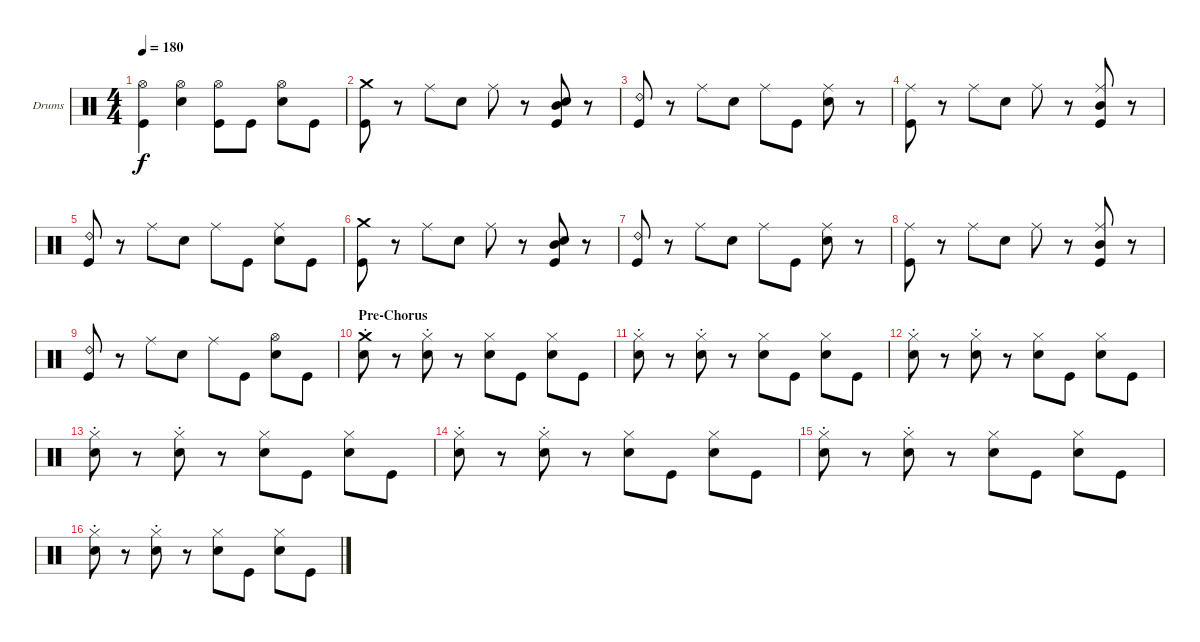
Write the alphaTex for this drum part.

\defaultSystemsLayout 4
\bracketExtendMode groupsimilarinstruments
\firstSystemTrackNameOrientation horizontal
\otherSystemsTrackNameOrientation horizontal
\track ("Drumkit" "Drums") {instrument percussion}
\staff {score}
\articulation defaults
\ts (4 4)
\tempo 180
\clef neutral
\ks c
("Kick (hit)" "Hi-Hat (open)").4{dy f} ("Snare (hit) 2" "Hi-Hat (open)").4 ("Hi-Hat (open)" "Kick (hit)").8 "Kick (hit)".8 ("Snare (hit) 2" "Hi-Hat (open)").8 "Kick (hit)".8 |
("Kick (hit)" "Crash medium (hit)").8 r.8 "Ride (middle)".8 "Snare (hit) 2".8 "Ride (middle)".8 r.8 ("Mid Tom (hit)" "Snare (hit) 2" "Kick (hit)").8 r.8 |
("Kick (hit)" "Ride (bell) 2").8 r.8 "Ride (middle)".8 "Snare (hit) 2".8 "Ride (middle)".8 "Kick (hit)".8 ("Snare (hit) 2" "Ride (middle)").8 r.8 |
("Kick (hit)" "Ride (middle)").8 r.8 "Ride (middle)".8 "Snare (hit) 2".8 "Ride (middle)".8 r.8 ("Mid Tom (hit)" "Ride (middle)" "Kick (hit)").8 r.8 |
("Kick (hit)" "Ride (bell) 2").8 r.8 "Ride (middle)".8 "Snare (hit) 2".8 "Ride (middle)".8 "Kick (hit)".8 ("Snare (hit) 2" "Ride (middle)").8 "Kick (hit)".8 |
("Kick (hit)" "Crash medium (hit)").8 r.8 "Ride (middle)".8 "Snare (hit) 2".8 "Ride (middle)".8 r.8 ("Mid Tom (hit)" "Snare (hit) 2" "Kick (hit)").8 r.8 |
("Kick (hit)" "Ride (bell) 2").8 r.8 "Ride (middle)".8 "Snare (hit) 2".8 "Ride (middle)".8 "Kick (hit)".8 ("Snare (hit) 2" "Ride (middle)").8 r.8 |
("Kick (hit)" "Ride (middle)").8 r.8 "Ride (middle)".8 "Snare (hit) 2".8 "Ride (middle)".8 r.8 ("Mid Tom (hit)" "Ride (middle)" "Kick (hit)").8 r.8 |
("Kick (hit)" "Ride (bell) 2").8 r.8 "Ride (middle)".8 "Snare (hit) 2".8 "Ride (middle)".8 "Kick (hit)".8 ("Snare (hit) 2" "Hi-Hat (open)").8 "Kick (hit)".8 |
\section ("" "Pre-Chorus")
("Crash medium (hit)" "Snare (hit) 2"{st}).8 r.8 ("Snare (hit) 2"{st} "Hi-Hat (closed)").8 r.8 ("Snare (hit) 2" "Hi-Hat (closed)").8 "Kick (hit)".8 ("Snare (hit) 2" "Hi-Hat (closed)").8 "Kick (hit)".8 |
("Snare (hit) 2"{st} "Hi-Hat (closed)").8 r.8 ("Snare (hit) 2"{st} "Hi-Hat (closed)").8 r.8 ("Snare (hit) 2" "Hi-Hat (closed)").8 "Kick (hit)".8 ("Snare (hit) 2" "Hi-Hat (closed)").8 "Kick (hit)".8 |
("Snare (hit) 2"{st} "Hi-Hat (closed)").8 r.8 ("Snare (hit) 2"{st} "Hi-Hat (closed)").8 r.8 ("Snare (hit) 2" "Hi-Hat (closed)").8 "Kick (hit)".8 ("Snare (hit) 2" "Hi-Hat (closed)").8 "Kick (hit)".8 |
("Snare (hit) 2"{st} "Hi-Hat (closed)").8 r.8 ("Snare (hit) 2"{st} "Hi-Hat (closed)").8 r.8 ("Snare (hit) 2" "Hi-Hat (closed)").8 "Kick (hit)".8 ("Snare (hit) 2" "Hi-Hat (closed)").8 "Kick (hit)".8 |
("Snare (hit) 2"{st} "Hi-Hat (closed)").8 r.8 ("Snare (hit) 2"{st} "Hi-Hat (closed)").8 r.8 ("Snare (hit) 2" "Hi-Hat (closed)").8 "Kick (hit)".8 ("Snare (hit) 2" "Hi-Hat (closed)").8 "Kick (hit)".8 |
("Snare (hit) 2"{st} "Hi-Hat (closed)").8 r.8 ("Snare (hit) 2"{st} "Hi-Hat (closed)").8 r.8 ("Snare (hit) 2" "Hi-Hat (closed)").8 "Kick (hit)".8 ("Snare (hit) 2" "Hi-Hat (closed)").8 "Kick (hit)".8 |
("Snare (hit) 2"{st} "Hi-Hat (closed)").8 r.8 ("Snare (hit) 2"{st} "Hi-Hat (closed)").8 r.8 ("Snare (hit) 2" "Hi-Hat (closed)").8 "Kick (hit)".8 ("Snare (hit) 2" "Hi-Hat (closed)").8 "Kick (hit)".8
